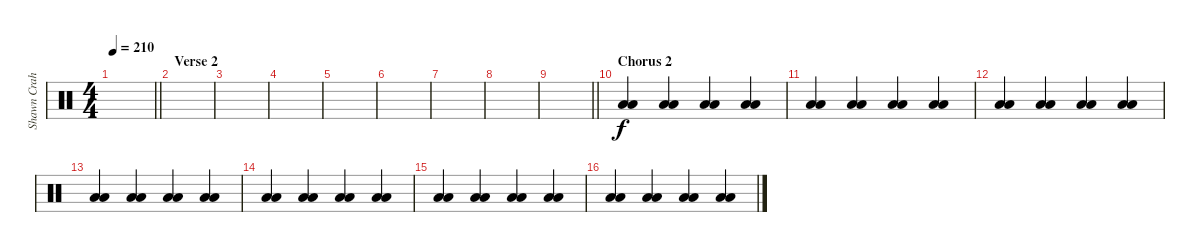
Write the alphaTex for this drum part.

\track ("Shawn Crahan" "Shawn Crah") {instrument percussion}
\staff {score}
\articulation defaults
\ts (4 4)
\tempo 210
\clef neutral
\barLineRight lightlight
\ks c
|
\section ("" "Verse 2")
|
|
|
|
|
|
|
\barLineRight lightlight
|
\section ("" "Chorus 2")
("Low Floor Tom (hit)" "Low Floor Tom (hit)").4 ("Low Floor Tom (hit)" "Low Floor Tom (hit)").4 ("Low Floor Tom (hit)" "Low Floor Tom (hit)").4 ("Low Floor Tom (hit)" "Low Floor Tom (hit)").4 |
("Low Floor Tom (hit)" "Low Floor Tom (hit)").4 ("Low Floor Tom (hit)" "Low Floor Tom (hit)").4 ("Low Floor Tom (hit)" "Low Floor Tom (hit)").4 ("Low Floor Tom (hit)" "Low Floor Tom (hit)").4 |
("Low Floor Tom (hit)" "Low Floor Tom (hit)").4 ("Low Floor Tom (hit)" "Low Floor Tom (hit)").4 ("Low Floor Tom (hit)" "Low Floor Tom (hit)").4 ("Low Floor Tom (hit)" "Low Floor Tom (hit)").4 |
("Low Floor Tom (hit)" "Low Floor Tom (hit)").4 ("Low Floor Tom (hit)" "Low Floor Tom (hit)").4 ("Low Floor Tom (hit)" "Low Floor Tom (hit)").4 ("Low Floor Tom (hit)" "Low Floor Tom (hit)").4 |
("Low Floor Tom (hit)" "Low Floor Tom (hit)").4 ("Low Floor Tom (hit)" "Low Floor Tom (hit)").4 ("Low Floor Tom (hit)" "Low Floor Tom (hit)").4 ("Low Floor Tom (hit)" "Low Floor Tom (hit)").4 |
("Low Floor Tom (hit)" "Low Floor Tom (hit)").4 ("Low Floor Tom (hit)" "Low Floor Tom (hit)").4 ("Low Floor Tom (hit)" "Low Floor Tom (hit)").4 ("Low Floor Tom (hit)" "Low Floor Tom (hit)").4 |
("Low Floor Tom (hit)" "Low Floor Tom (hit)").4 ("Low Floor Tom (hit)" "Low Floor Tom (hit)").4 ("Low Floor Tom (hit)" "Low Floor Tom (hit)").4 ("Low Floor Tom (hit)" "Low Floor Tom (hit)").4
